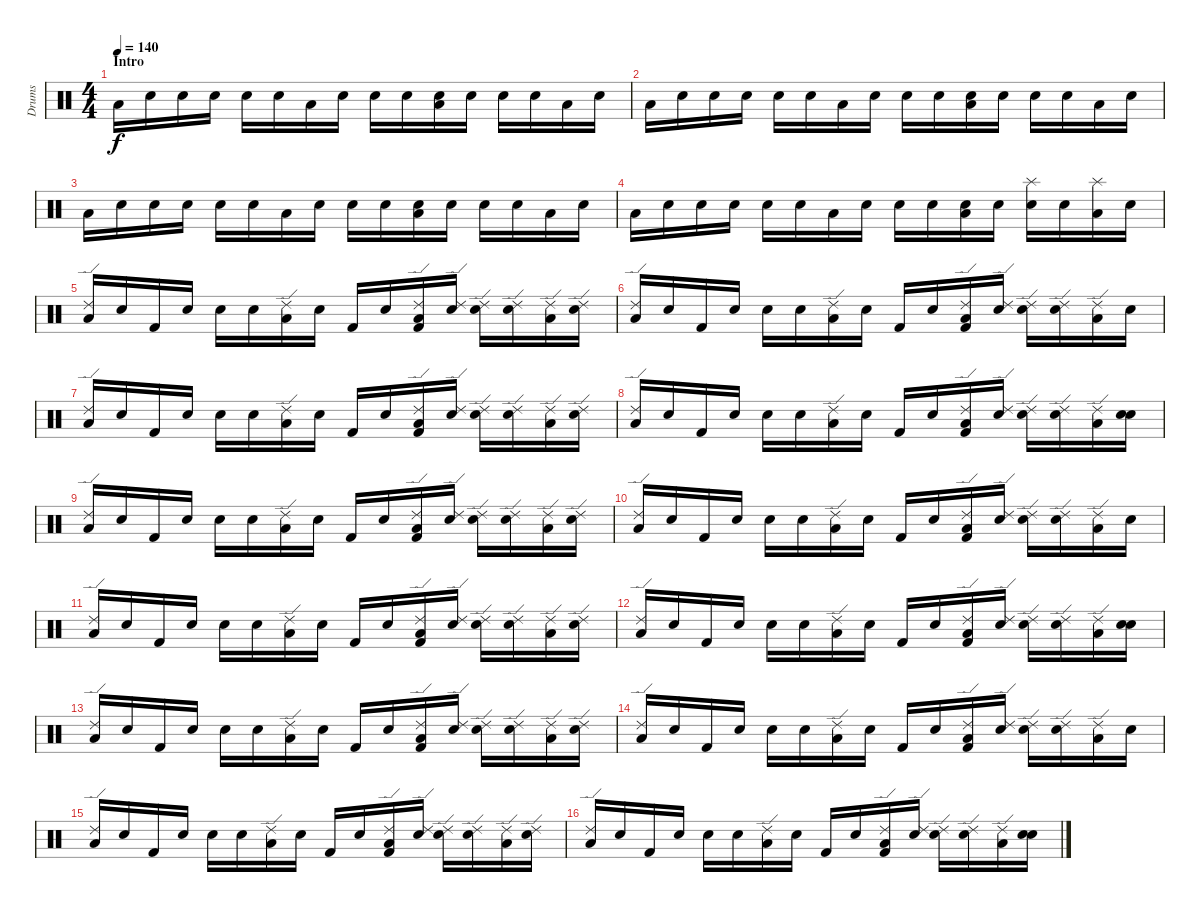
\track ("Drums" "Drums") {instrument percussion}
\staff {score}
\articulation defaults
\ts (4 4)
\section ("" "Intro ")
\tempo 140
\clef neutral
\ks c "Low Tom (hit)".16{dy f} "Snare (hit)".16 "Snare (hit)".16 "Snare (hit)".16 "Electric Snare (hit)".16 "Snare (hit)".16 "Low Tom (hit)".16 "Snare (hit)".16 "Snare (hit)".16 "Snare (hit)".16
("Snare (hit)" "Low Tom (hit)").16 "Snare (hit)".16 "Electric Snare (hit)".16 "Snare (hit)".16 "Low Tom (hit)".16 "Snare (hit)".16 |
"Low Tom (hit)".16 "Snare (hit)".16 "Snare (hit)".16 "Snare (hit)".16 "Electric Snare (hit)".16 "Snare (hit)".16 "Low Tom (hit)".16 "Snare (hit)".16 "Snare (hit)".16 "Snare (hit)".16 ("Snare (hit)" "Low Tom (hit)").16 "Snare (hit)".16 "Electric Snare (hit)".16 "Snare (hit)".16 "Low Tom (hit)".16 "Snare (hit)".16 |
"Low Tom (hit)".16 "Snare (hit)".16 "Snare (hit)".16 "Snare (hit)".16 "Electric Snare (hit)".16 "Snare (hit)".16 "Low Tom (hit)".16 "Snare (hit)".16 "Snare (hit)".16 "Snare (hit)".16 ("Snare (hit)" "Low Tom (hit)").16 "Snare (hit)".16 "Electric Snare (hit)".16 "Snare (hit)".16 "Low Tom (hit)".16 "Snare (hit)".16 |
"Low Tom (hit)".16 "Snare (hit)".16 "Snare (hit)".16 "Snare (hit)".16 "Electric Snare (hit)".16 "Snare (hit)".16 "Low Tom (hit)".16 "Snare (hit)".16 "Snare (hit)".16 "Snare (hit)".16 ("Snare (hit)" "Low Tom (hit)").16 "Snare (hit)".16 ("Electric Snare (hit)" "Splash (hit)").16 "Snare (hit)".16 ("Low Tom (hit)" "Splash (hit)").16 "Snare (hit)".16 |
("Low Tom (hit)" "Ride (edge) 2").16 "Snare (hit)".16 "Kick (hit) 2".16 "Snare (hit)".16 "Electric Snare (hit)".16 "Snare (hit)".16 ("Low Tom (hit)" "Ride (edge) 2").16 "Snare (hit)".16 "Kick (hit) 2".16 "Snare (hit)".16 ("Kick (hit) 2" "Low Tom (hit)" "Ride (edge) 2").16 ("Snare (hit)" "Ride (edge) 2").16 ("Electric Snare (hit)" "Ride (edge) 2").16 ("Snare (hit)" "Ride (edge) 2").16 ("Low Tom (hit)" "Ride (edge) 2").16 ("Snare (hit)" "Ride (edge) 2").16 |
("Low Tom (hit)" "Ride (edge) 2").16 "Snare (hit)".16 "Kick (hit) 2".16 "Snare (hit)".16 "Electric Snare (hit)".16 "Snare (hit)".16 ("Low Tom (hit)" "Ride (edge) 2").16 "Snare (hit)".16 "Kick (hit) 2".16 "Snare (hit)".16 ("Kick (hit) 2" "Low Tom (hit)" "Ride (edge) 2").16 ("Snare (hit)" "Ride (edge) 2").16 ("Electric Snare (hit)" "Ride (edge) 2").16 ("Snare (hit)" "Ride (edge) 2").16 ("Low Tom (hit)" "Ride (edge) 2").16 "Snare (hit)".16 |
("Low Tom (hit)" "Ride (edge) 2").16 "Snare (hit)".16 "Kick (hit) 2".16 "Snare (hit)".16 "Electric Snare (hit)".16 "Snare (hit)".16 ("Low Tom (hit)" "Ride (edge) 2").16 "Snare (hit)".16 "Kick (hit) 2".16 "Snare (hit)".16 ("Kick (hit) 2" "Low Tom (hit)" "Ride (edge) 2").16 ("Snare (hit)" "Ride (edge) 2").16 ("Electric Snare (hit)" "Ride (edge) 2").16 ("Snare (hit)" "Ride (edge) 2").16 ("Low Tom (hit)" "Ride (edge) 2").16 ("Snare (hit)" "Ride (edge) 2").16 |
("Low Tom (hit)" "Ride (edge) 2").16 "Snare (hit)".16 "Kick (hit) 2".16 "Snare (hit)".16 "Electric Snare (hit)".16 "Snare (hit)".16 ("Low Tom (hit)" "Ride (edge) 2").16 "Snare (hit)".16 "Kick (hit) 2".16 "Snare (hit)".16 ("Kick (hit) 2" "Low Tom (hit)" "Ride (edge) 2").16 ("Snare (hit)" "Ride (edge) 2").16 ("Electric Snare (hit)" "Ride (edge) 2").16 ("Snare (hit)" "Ride (edge) 2").16 ("Low Tom (hit)" "Ride (edge) 2").16 ("Snare (hit)" "Snare (hit)").16 |
("Low Tom (hit)" "Ride (edge) 2").16 "Snare (hit)".16 "Kick (hit) 2".16 "Snare (hit)".16 "Electric Snare (hit)".16 "Snare (hit)".16 ("Low Tom (hit)" "Ride (edge) 2").16 "Snare (hit)".16 "Kick (hit) 2".16 "Snare (hit)".16 ("Kick (hit) 2" "Low Tom (hit)" "Ride (edge) 2").16 ("Snare (hit)" "Ride (edge) 2").16 ("Electric Snare (hit)" "Ride (edge) 2").16 ("Snare (hit)" "Ride (edge) 2").16 ("Low Tom (hit)" "Ride (edge) 2").16 ("Snare (hit)" "Ride (edge) 2").16 |
("Low Tom (hit)" "Ride (edge) 2").16 "Snare (hit)".16 "Kick (hit) 2".16 "Snare (hit)".16 "Electric Snare (hit)".16 "Snare (hit)".16 ("Low Tom (hit)" "Ride (edge) 2").16 "Snare (hit)".16 "Kick (hit) 2".16 "Snare (hit)".16 ("Kick (hit) 2" "Low Tom (hit)" "Ride (edge) 2").16 ("Snare (hit)" "Ride (edge) 2").16 ("Electric Snare (hit)" "Ride (edge) 2").16 ("Snare (hit)" "Ride (edge) 2").16 ("Low Tom (hit)" "Ride (edge) 2").16 "Snare (hit)".16 |
("Low Tom (hit)" "Ride (edge) 2").16 "Snare (hit)".16 "Kick (hit) 2".16 "Snare (hit)".16 "Electric Snare (hit)".16 "Snare (hit)".16 ("Low Tom (hit)" "Ride (edge) 2").16 "Snare (hit)".16 "Kick (hit) 2".16 "Snare (hit)".16 ("Kick (hit) 2" "Low Tom (hit)" "Ride (edge) 2").16 ("Snare (hit)" "Ride (edge) 2").16 ("Electric Snare (hit)" "Ride (edge) 2").16 ("Snare (hit)" "Ride (edge) 2").16 ("Low Tom (hit)" "Ride (edge) 2").16 ("Snare (hit)" "Ride (edge) 2").16 |
("Low Tom (hit)" "Ride (edge) 2").16 "Snare (hit)".16 "Kick (hit) 2".16 "Snare (hit)".16 "Electric Snare (hit)".16 "Snare (hit)".16 ("Low Tom (hit)" "Ride (edge) 2").16 "Snare (hit)".16 "Kick (hit) 2".16 "Snare (hit)".16 ("Kick (hit) 2" "Low Tom (hit)" "Ride (edge) 2").16 ("Snare (hit)" "Ride (edge) 2").16 ("Electric Snare (hit)" "Ride (edge) 2").16 ("Snare (hit)" "Ride (edge) 2").16 ("Low Tom (hit)" "Ride (edge) 2").16 ("Snare (hit)" "Snare (hit)").16 |
("Low Tom (hit)" "Ride (edge) 2").16 "Snare (hit)".16 "Kick (hit) 2".16 "Snare (hit)".16 "Electric Snare (hit)".16 "Snare (hit)".16 ("Low Tom (hit)" "Ride (edge) 2").16 "Snare (hit)".16 "Kick (hit) 2".16 "Snare (hit)".16 ("Kick (hit) 2" "Low Tom (hit)" "Ride (edge) 2").16 ("Snare (hit)" "Ride (edge) 2").16 ("Electric Snare (hit)" "Ride (edge) 2").16 ("Snare (hit)" "Ride (edge) 2").16 ("Low Tom (hit)" "Ride (edge) 2").16 ("Snare (hit)" "Ride (edge) 2").16 |
("Low Tom (hit)" "Ride (edge) 2").16 "Snare (hit)".16 "Kick (hit) 2".16 "Snare (hit)".16 "Electric Snare (hit)".16 "Snare (hit)".16 ("Low Tom (hit)" "Ride (edge) 2").16 "Snare (hit)".16 "Kick (hit) 2".16 "Snare (hit)".16 ("Kick (hit) 2" "Low Tom (hit)" "Ride (edge) 2").16 ("Snare (hit)" "Ride (edge) 2").16 ("Electric Snare (hit)" "Ride (edge) 2").16 ("Snare (hit)" "Ride (edge) 2").16 ("Low Tom (hit)" "Ride (edge) 2").16 "Snare (hit)".16 |
("Low Tom (hit)" "Ride (edge) 2").16 "Snare (hit)".16 "Kick (hit) 2".16 "Snare (hit)".16 "Electric Snare (hit)".16 "Snare (hit)".16 ("Low Tom (hit)" "Ride (edge) 2").16 "Snare (hit)".16 "Kick (hit) 2".16 "Snare (hit)".16 ("Kick (hit) 2" "Low Tom (hit)" "Ride (edge) 2").16 ("Snare (hit)" "Ride (edge) 2").16 ("Electric Snare (hit)" "Ride (edge) 2").16 ("Snare (hit)" "Ride (edge) 2").16 ("Low Tom (hit)" "Ride (edge) 2").16 ("Snare (hit)" "Ride (edge) 2").16 |
("Low Tom (hit)" "Ride (edge) 2").16 "Snare (hit)".16 "Kick (hit) 2".16 "Snare (hit)".16 "Electric Snare (hit)".16 "Snare (hit)".16 ("Low Tom (hit)" "Ride (edge) 2").16 "Snare (hit)".16 "Kick (hit) 2".16 "Snare (hit)".16 ("Kick (hit) 2" "Low Tom (hit)" "Ride (edge) 2").16 ("Snare (hit)" "Ride (edge) 2").16 ("Electric Snare (hit)" "Ride (edge) 2").16 ("Snare (hit)" "Ride (edge) 2").16 ("Low Tom (hit)" "Ride (edge) 2").16 ("Snare (hit)" "Snare (hit)").16
